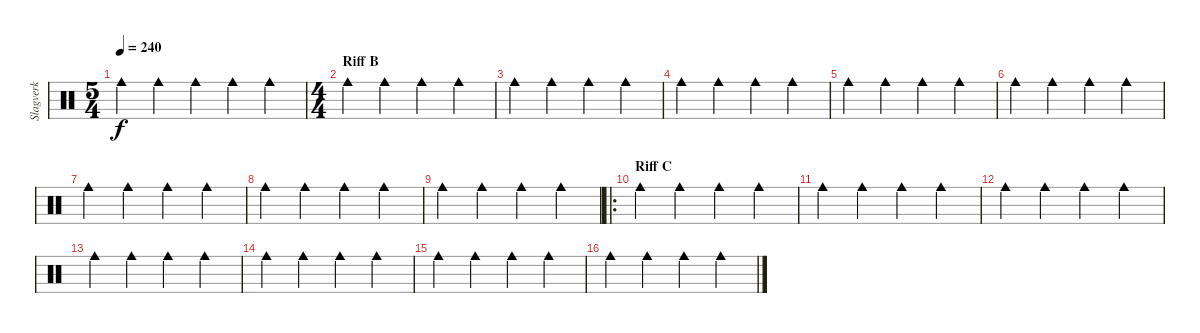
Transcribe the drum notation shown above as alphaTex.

\track ("Slagverk" "Slagverk") {instrument percussion}
\staff {score}
\articulation defaults
\ts (5 4)
\tempo 240
\clef neutral
\ks c "Cowbell medium (hit)".4{dy f} "Cowbell medium (hit)".4 "Cowbell medium (hit)".4 "Cowbell medium (hit)".4 "Cowbell medium (hit)".4
|
\ts (4 4)
\section ("" "Riff B")
"Cowbell medium (hit)".4 "Cowbell medium (hit)".4 "Cowbell medium (hit)".4 "Cowbell medium (hit)".4 |
"Cowbell medium (hit)".4 "Cowbell medium (hit)".4 "Cowbell medium (hit)".4 "Cowbell medium (hit)".4 |
"Cowbell medium (hit)".4 "Cowbell medium (hit)".4 "Cowbell medium (hit)".4 "Cowbell medium (hit)".4 |
"Cowbell medium (hit)".4 "Cowbell medium (hit)".4 "Cowbell medium (hit)".4 "Cowbell medium (hit)".4 |
"Cowbell medium (hit)".4 "Cowbell medium (hit)".4 "Cowbell medium (hit)".4 "Cowbell medium (hit)".4 |
"Cowbell medium (hit)".4 "Cowbell medium (hit)".4 "Cowbell medium (hit)".4 "Cowbell medium (hit)".4 |
"Cowbell medium (hit)".4 "Cowbell medium (hit)".4 "Cowbell medium (hit)".4 "Cowbell medium (hit)".4 |
"Cowbell medium (hit)".4 "Cowbell medium (hit)".4 "Cowbell medium (hit)".4 "Cowbell medium (hit)".4 |
\ro
\section ("" "Riff C")
"Cowbell medium (hit)".4 "Cowbell medium (hit)".4 "Cowbell medium (hit)".4 "Cowbell medium (hit)".4 |
"Cowbell medium (hit)".4 "Cowbell medium (hit)".4 "Cowbell medium (hit)".4 "Cowbell medium (hit)".4 |
"Cowbell medium (hit)".4 "Cowbell medium (hit)".4 "Cowbell medium (hit)".4 "Cowbell medium (hit)".4 |
"Cowbell medium (hit)".4 "Cowbell medium (hit)".4 "Cowbell medium (hit)".4 "Cowbell medium (hit)".4 |
"Cowbell medium (hit)".4 "Cowbell medium (hit)".4 "Cowbell medium (hit)".4 "Cowbell medium (hit)".4 |
"Cowbell medium (hit)".4 "Cowbell medium (hit)".4 "Cowbell medium (hit)".4 "Cowbell medium (hit)".4 |
"Cowbell medium (hit)".4 "Cowbell medium (hit)".4 "Cowbell medium (hit)".4 "Cowbell medium (hit)".4
